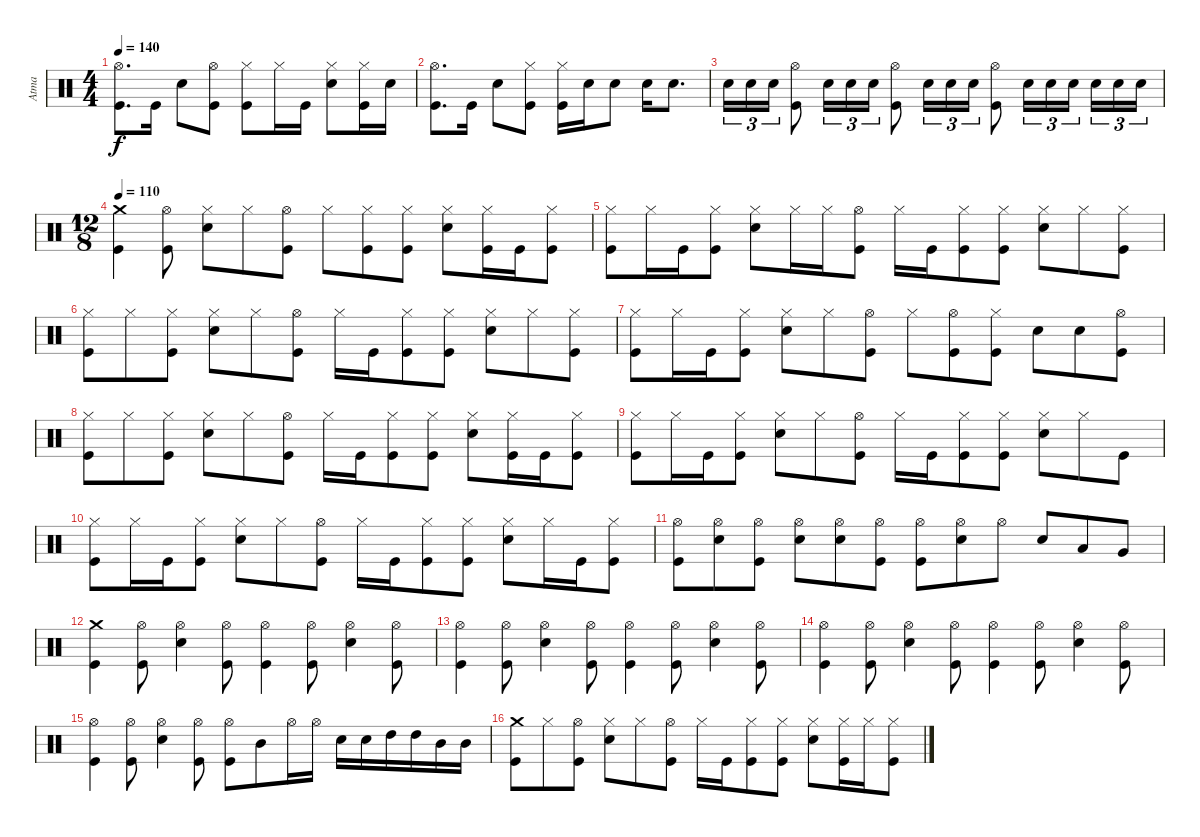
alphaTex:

\track ("Atma" "Atma") {instrument percussion}
\staff {score}
\articulation defaults
\ts (4 4)
\tempo 140
\clef neutral
\ks c
("Kick (hit)" "Hi-Hat (open)").8{d dy f} "Kick (hit)".16 "Snare (hit) 2".8 ("Kick (hit)" "Hi-Hat (open)").8 ("Kick (hit)" "Hi-Hat (closed)").8 "Hi-Hat (closed)".16 "Kick (hit)".16 ("Snare (hit) 2" "Hi-Hat (closed)").8 ("Kick (hit)" "Hi-Hat (closed)").16 "Snare (hit) 2".16 |
("Kick (hit)" "Hi-Hat (open)").8{d} "Kick (hit)".16 "Snare (hit) 2".8 ("Kick (hit)" "Hi-Hat (closed)").8 ("Kick (hit)" "Hi-Hat (closed)").16 "Snare (hit) 2".16 "Snare (hit) 2".8 "Snare (hit) 2".16 "Snare (hit) 2".8{d} |
"Snare (hit) 2".16{tu (3 2)} "Snare (hit) 2".16{tu (3 2)} "Snare (hit) 2".16{tu (3 2)} ("Kick (hit)" "Hi-Hat (open)").8 "Snare (hit) 2".16{tu (3 2)} "Snare (hit) 2".16{tu (3 2)} "Snare (hit) 2".16{tu (3 2)} ("Kick (hit)" "Hi-Hat (open)").8 "Snare (hit) 2".16{tu (3 2)} "Snare (hit) 2".16{tu (3 2)} "Snare (hit) 2".16{tu (3 2)} ("Kick (hit)" "Hi-Hat (open)").8 "Snare (hit) 2".16{tu (3 2)} "Snare (hit) 2".16{tu (3 2)} "Snare (hit) 2".16{tu (3 2)} "Snare (hit) 2".16{tu (3 2)} "Snare (hit) 2".16{tu (3 2)} "Snare (hit) 2".16{tu (3 2)} |
\ts (12 8)
\tempo 110
("Kick (hit)" "Crash medium (hit)").4 ("Kick (hit)" "Hi-Hat (open)").8 ("Snare (hit) 2" "Hi-Hat (closed)").8 "Hi-Hat (closed)".8 ("Kick (hit)" "Hi-Hat (open)").8 "Hi-Hat (closed)".8 ("Kick (hit)" "Hi-Hat (closed)").8 ("Kick (hit)" "Hi-Hat (closed)").8 ("Snare (hit) 2" "Hi-Hat (closed)").8 ("Kick (hit)" "Hi-Hat (closed)").16 "Kick (hit)".16 ("Kick (hit)" "Hi-Hat (closed)").8 |
("Kick (hit)" "Hi-Hat (closed)").8 "Hi-Hat (closed)".16 "Kick (hit)".16 ("Kick (hit)" "Hi-Hat (closed)").8 ("Snare (hit) 2" "Hi-Hat (closed)").8 "Hi-Hat (closed)".16 "Hi-Hat (closed)".16 ("Kick (hit)" "Hi-Hat (open)").8 "Hi-Hat (closed)".16 "Kick (hit)".16 ("Kick (hit)" "Hi-Hat (closed)").8 ("Kick (hit)" "Hi-Hat (closed)").8 ("Snare (hit) 2" "Hi-Hat (closed)").8 "Hi-Hat (closed)".8 ("Kick (hit)" "Hi-Hat (closed)").8 |
("Kick (hit)" "Hi-Hat (closed)").8 "Hi-Hat (closed)".8 ("Kick (hit)" "Hi-Hat (closed)").8 ("Snare (hit) 2" "Hi-Hat (closed)").8 "Hi-Hat (closed)".8 ("Kick (hit)" "Hi-Hat (open)").8 "Hi-Hat (closed)".16 "Kick (hit)".16 ("Kick (hit)" "Hi-Hat (closed)").8 ("Kick (hit)" "Hi-Hat (closed)").8 ("Snare (hit) 2" "Hi-Hat (closed)").8 "Hi-Hat (closed)".8 ("Kick (hit)" "Hi-Hat (closed)").8 |
("Kick (hit)" "Hi-Hat (closed)").8 "Hi-Hat (closed)".16 "Kick (hit)".16 ("Kick (hit)" "Hi-Hat (closed)").8 ("Snare (hit) 2" "Hi-Hat (closed)").8 "Hi-Hat (closed)".8 ("Kick (hit)" "Hi-Hat (open)").8 "Hi-Hat (closed)".8 ("Kick (hit)" "Hi-Hat (open)").8 ("Kick (hit)" "Hi-Hat (closed)").8 "Snare (hit) 2".8 "Snare (hit) 2".8 ("Kick (hit)" "Hi-Hat (open)").8 |
("Kick (hit)" "Hi-Hat (closed)").8 "Hi-Hat (closed)".8 ("Kick (hit)" "Hi-Hat (closed)").8 ("Snare (hit) 2" "Hi-Hat (closed)").8 "Hi-Hat (closed)".8 ("Kick (hit)" "Hi-Hat (open)").8 "Hi-Hat (closed)".16 "Kick (hit)".16 ("Kick (hit)" "Hi-Hat (closed)").8 ("Kick (hit)" "Hi-Hat (closed)").8 ("Snare (hit) 2" "Hi-Hat (closed)").8 ("Kick (hit)" "Hi-Hat (closed)").16 "Kick (hit)".16 ("Kick (hit)" "Hi-Hat (closed)").8 |
("Kick (hit)" "Hi-Hat (closed)").8 "Hi-Hat (closed)".16 "Kick (hit)".16 ("Kick (hit)" "Hi-Hat (closed)").8 ("Snare (hit) 2" "Hi-Hat (closed)").8 "Hi-Hat (closed)".8 ("Kick (hit)" "Hi-Hat (open)").8 "Hi-Hat (closed)".16 "Kick (hit)".16 ("Kick (hit)" "Hi-Hat (closed)").8 ("Kick (hit)" "Hi-Hat (closed)").8 ("Snare (hit) 2" "Hi-Hat (closed)").8 "Hi-Hat (closed)".8 "Kick (hit)".8 |
("Kick (hit)" "Hi-Hat (closed)").8 "Hi-Hat (closed)".16 "Kick (hit)".16 ("Kick (hit)" "Hi-Hat (closed)").8 ("Snare (hit) 2" "Hi-Hat (closed)").8 "Hi-Hat (closed)".8 ("Kick (hit)" "Hi-Hat (open)").8 "Hi-Hat (closed)".16 "Kick (hit)".16 ("Kick (hit)" "Hi-Hat (closed)").8 ("Kick (hit)" "Hi-Hat (closed)").8 ("Snare (hit) 2" "Hi-Hat (closed)").8 "Hi-Hat (closed)".16 "Kick (hit)".16 ("Kick (hit)" "Hi-Hat (closed)").8 |
("Kick (hit)" "Hi-Hat (open)").8 ("Snare (hit) 2" "Hi-Hat (open)").8 ("Kick (hit)" "Hi-Hat (open)").8 ("Snare (hit) 2" "Hi-Hat (open)").8 ("Snare (hit) 2" "Hi-Hat (open)").8 ("Kick (hit)" "Hi-Hat (open)").8 ("Kick (hit)" "Hi-Hat (open)").8 ("Snare (hit) 2" "Hi-Hat (open)").8 "Hi-Hat (open)".8 "Snare (hit) 2".8 "Low Tom (hit)".8 "Very Low Tom (hit)".8 |
("Kick (hit)" "Crash medium (hit)").4 ("Kick (hit)" "Hi-Hat (open)").8 ("Snare (hit) 2" "Hi-Hat (open)").4 ("Kick (hit)" "Hi-Hat (open)").8 ("Kick (hit)" "Hi-Hat (open)").4 ("Kick (hit)" "Hi-Hat (open)").8 ("Snare (hit) 2" "Hi-Hat (open)").4 ("Kick (hit)" "Hi-Hat (open)").8 |
("Kick (hit)" "Hi-Hat (open)").4 ("Kick (hit)" "Hi-Hat (open)").8 ("Snare (hit) 2" "Hi-Hat (open)").4 ("Kick (hit)" "Hi-Hat (open)").8 ("Kick (hit)" "Hi-Hat (open)").4 ("Kick (hit)" "Hi-Hat (open)").8 ("Snare (hit) 2" "Hi-Hat (open)").4 ("Kick (hit)" "Hi-Hat (open)").8 |
("Kick (hit)" "Hi-Hat (open)").4 ("Kick (hit)" "Hi-Hat (open)").8 ("Snare (hit) 2" "Hi-Hat (open)").4 ("Kick (hit)" "Hi-Hat (open)").8 ("Kick (hit)" "Hi-Hat (open)").4 ("Kick (hit)" "Hi-Hat (open)").8 ("Snare (hit) 2" "Hi-Hat (open)").4 ("Kick (hit)" "Hi-Hat (open)").8 |
("Kick (hit)" "Hi-Hat (open)").4 ("Kick (hit)" "Hi-Hat (open)").8 ("Snare (hit) 2" "Hi-Hat (open)").4 ("Kick (hit)" "Hi-Hat (open)").8 ("Kick (hit)" "Hi-Hat (open)").8 "Mid Tom (hit)".8 "Hi-Hat (open)".16 "Hi-Hat (open)".16 "Snare (hit) 2".16 "Snare (hit) 2".16 "High Tom (hit)".16 "High Tom (hit)".16 "Mid Tom (hit)".16 "Mid Tom (hit)".16 |
("Kick (hit)" "Crash medium (hit)").8 "Hi-Hat (closed)".8 ("Kick (hit)" "Hi-Hat (open)").8 ("Snare (hit) 2" "Hi-Hat (closed)").8 "Hi-Hat (closed)".8 ("Kick (hit)" "Hi-Hat (open)").8 "Hi-Hat (closed)".16 "Kick (hit)".16 ("Kick (hit)" "Hi-Hat (closed)").8 ("Kick (hit)" "Hi-Hat (closed)").8 ("Snare (hit) 2" "Hi-Hat (closed)").8 ("Kick (hit)" "Hi-Hat (closed)").16 "Hi-Hat (closed)".16 ("Kick (hit)" "Hi-Hat (closed)").8
